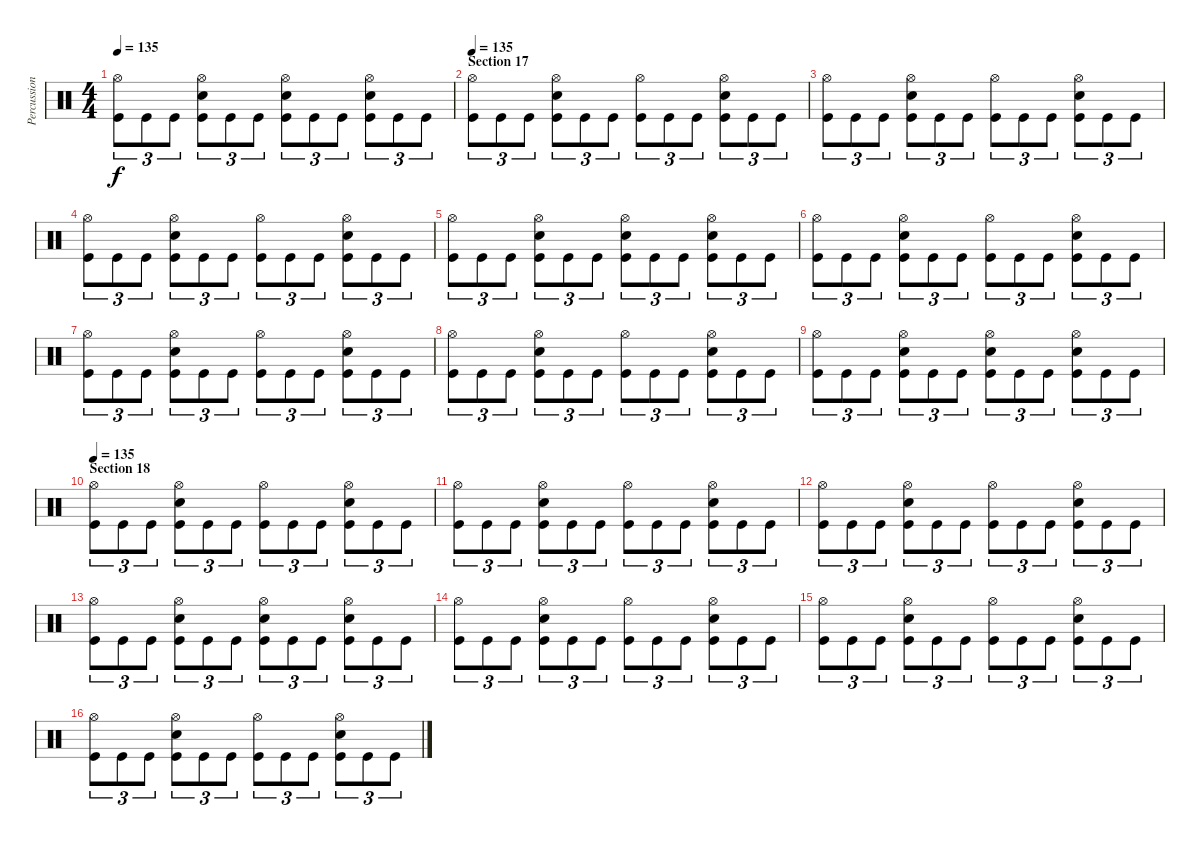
\track ("Percussions" "Percussion") {instrument percussion}
\staff {score}
\articulation defaults
\ts (4 4)
\tempo 135
\clef neutral
\ks c
("Hi-Hat (open)" "Kick (hit)").8{tu (3 2) dy f} "Kick (hit)".8{tu (3 2)} "Kick (hit)".8{tu (3 2)} ("Hi-Hat (open)" "Electric Snare (hit)" "Kick (hit)").8{tu (3 2)} "Kick (hit)".8{tu (3 2)} "Kick (hit)".8{tu (3 2)} ("Hi-Hat (open)" "Electric Snare (hit)" "Kick (hit)").8{tu (3 2)} "Kick (hit)".8{tu (3 2)} "Kick (hit)".8{tu (3 2)} ("Hi-Hat (open)" "Electric Snare (hit)" "Kick (hit)").8{tu (3 2)} "Kick (hit)".8{tu (3 2)} "Kick (hit)".8{tu (3 2)} |
\section ("" "Section 17")
\tempo 135
("Hi-Hat (open)" "Kick (hit)").8{tu (3 2)} "Kick (hit)".8{tu (3 2)} "Kick (hit)".8{tu (3 2)} ("Hi-Hat (open)" "Electric Snare (hit)" "Kick (hit)").8{tu (3 2)} "Kick (hit)".8{tu (3 2)} "Kick (hit)".8{tu (3 2)} ("Hi-Hat (open)" "Kick (hit)").8{tu (3 2)} "Kick (hit)".8{tu (3 2)} "Kick (hit)".8{tu (3 2)} ("Hi-Hat (open)" "Electric Snare (hit)" "Kick (hit)").8{tu (3 2)} "Kick (hit)".8{tu (3 2)} "Kick (hit)".8{tu (3 2)} |
("Hi-Hat (open)" "Kick (hit)").8{tu (3 2)} "Kick (hit)".8{tu (3 2)} "Kick (hit)".8{tu (3 2)} ("Hi-Hat (open)" "Electric Snare (hit)" "Kick (hit)").8{tu (3 2)} "Kick (hit)".8{tu (3 2)} "Kick (hit)".8{tu (3 2)} ("Hi-Hat (open)" "Kick (hit)").8{tu (3 2)} "Kick (hit)".8{tu (3 2)} "Kick (hit)".8{tu (3 2)} ("Hi-Hat (open)" "Electric Snare (hit)" "Kick (hit)").8{tu (3 2)} "Kick (hit)".8{tu (3 2)} "Kick (hit)".8{tu (3 2)} |
("Hi-Hat (open)" "Kick (hit)").8{tu (3 2)} "Kick (hit)".8{tu (3 2)} "Kick (hit)".8{tu (3 2)} ("Hi-Hat (open)" "Electric Snare (hit)" "Kick (hit)").8{tu (3 2)} "Kick (hit)".8{tu (3 2)} "Kick (hit)".8{tu (3 2)} ("Hi-Hat (open)" "Kick (hit)").8{tu (3 2)} "Kick (hit)".8{tu (3 2)} "Kick (hit)".8{tu (3 2)} ("Hi-Hat (open)" "Electric Snare (hit)" "Kick (hit)").8{tu (3 2)} "Kick (hit)".8{tu (3 2)} "Kick (hit)".8{tu (3 2)} |
("Hi-Hat (open)" "Kick (hit)").8{tu (3 2)} "Kick (hit)".8{tu (3 2)} "Kick (hit)".8{tu (3 2)} ("Hi-Hat (open)" "Electric Snare (hit)" "Kick (hit)").8{tu (3 2)} "Kick (hit)".8{tu (3 2)} "Kick (hit)".8{tu (3 2)} ("Hi-Hat (open)" "Electric Snare (hit)" "Kick (hit)").8{tu (3 2)} "Kick (hit)".8{tu (3 2)} "Kick (hit)".8{tu (3 2)} ("Hi-Hat (open)" "Electric Snare (hit)" "Kick (hit)").8{tu (3 2)} "Kick (hit)".8{tu (3 2)} "Kick (hit)".8{tu (3 2)} |
("Hi-Hat (open)" "Kick (hit)").8{tu (3 2)} "Kick (hit)".8{tu (3 2)} "Kick (hit)".8{tu (3 2)} ("Hi-Hat (open)" "Electric Snare (hit)" "Kick (hit)").8{tu (3 2)} "Kick (hit)".8{tu (3 2)} "Kick (hit)".8{tu (3 2)} ("Hi-Hat (open)" "Kick (hit)").8{tu (3 2)} "Kick (hit)".8{tu (3 2)} "Kick (hit)".8{tu (3 2)} ("Hi-Hat (open)" "Electric Snare (hit)" "Kick (hit)").8{tu (3 2)} "Kick (hit)".8{tu (3 2)} "Kick (hit)".8{tu (3 2)} |
("Hi-Hat (open)" "Kick (hit)").8{tu (3 2)} "Kick (hit)".8{tu (3 2)} "Kick (hit)".8{tu (3 2)} ("Hi-Hat (open)" "Electric Snare (hit)" "Kick (hit)").8{tu (3 2)} "Kick (hit)".8{tu (3 2)} "Kick (hit)".8{tu (3 2)} ("Hi-Hat (open)" "Kick (hit)").8{tu (3 2)} "Kick (hit)".8{tu (3 2)} "Kick (hit)".8{tu (3 2)} ("Hi-Hat (open)" "Electric Snare (hit)" "Kick (hit)").8{tu (3 2)} "Kick (hit)".8{tu (3 2)} "Kick (hit)".8{tu (3 2)} |
("Hi-Hat (open)" "Kick (hit)").8{tu (3 2)} "Kick (hit)".8{tu (3 2)} "Kick (hit)".8{tu (3 2)} ("Hi-Hat (open)" "Electric Snare (hit)" "Kick (hit)").8{tu (3 2)} "Kick (hit)".8{tu (3 2)} "Kick (hit)".8{tu (3 2)} ("Hi-Hat (open)" "Kick (hit)").8{tu (3 2)} "Kick (hit)".8{tu (3 2)} "Kick (hit)".8{tu (3 2)} ("Hi-Hat (open)" "Electric Snare (hit)" "Kick (hit)").8{tu (3 2)} "Kick (hit)".8{tu (3 2)} "Kick (hit)".8{tu (3 2)} |
("Hi-Hat (open)" "Kick (hit)").8{tu (3 2)} "Kick (hit)".8{tu (3 2)} "Kick (hit)".8{tu (3 2)} ("Hi-Hat (open)" "Electric Snare (hit)" "Kick (hit)").8{tu (3 2)} "Kick (hit)".8{tu (3 2)} "Kick (hit)".8{tu (3 2)} ("Hi-Hat (open)" "Electric Snare (hit)" "Kick (hit)").8{tu (3 2)} "Kick (hit)".8{tu (3 2)} "Kick (hit)".8{tu (3 2)} ("Hi-Hat (open)" "Electric Snare (hit)" "Kick (hit)").8{tu (3 2)} "Kick (hit)".8{tu (3 2)} "Kick (hit)".8{tu (3 2)} |
\section ("" "Section 18")
\tempo 135
("Hi-Hat (open)" "Kick (hit)").8{tu (3 2)} "Kick (hit)".8{tu (3 2)} "Kick (hit)".8{tu (3 2)} ("Hi-Hat (open)" "Electric Snare (hit)" "Kick (hit)").8{tu (3 2)} "Kick (hit)".8{tu (3 2)} "Kick (hit)".8{tu (3 2)} ("Hi-Hat (open)" "Kick (hit)").8{tu (3 2)} "Kick (hit)".8{tu (3 2)} "Kick (hit)".8{tu (3 2)} ("Hi-Hat (open)" "Electric Snare (hit)" "Kick (hit)").8{tu (3 2)} "Kick (hit)".8{tu (3 2)} "Kick (hit)".8{tu (3 2)} |
("Hi-Hat (open)" "Kick (hit)").8{tu (3 2)} "Kick (hit)".8{tu (3 2)} "Kick (hit)".8{tu (3 2)} ("Hi-Hat (open)" "Electric Snare (hit)" "Kick (hit)").8{tu (3 2)} "Kick (hit)".8{tu (3 2)} "Kick (hit)".8{tu (3 2)} ("Hi-Hat (open)" "Kick (hit)").8{tu (3 2)} "Kick (hit)".8{tu (3 2)} "Kick (hit)".8{tu (3 2)} ("Hi-Hat (open)" "Electric Snare (hit)" "Kick (hit)").8{tu (3 2)} "Kick (hit)".8{tu (3 2)} "Kick (hit)".8{tu (3 2)} |
("Hi-Hat (open)" "Kick (hit)").8{tu (3 2)} "Kick (hit)".8{tu (3 2)} "Kick (hit)".8{tu (3 2)} ("Hi-Hat (open)" "Electric Snare (hit)" "Kick (hit)").8{tu (3 2)} "Kick (hit)".8{tu (3 2)} "Kick (hit)".8{tu (3 2)} ("Hi-Hat (open)" "Kick (hit)").8{tu (3 2)} "Kick (hit)".8{tu (3 2)} "Kick (hit)".8{tu (3 2)} ("Hi-Hat (open)" "Electric Snare (hit)" "Kick (hit)").8{tu (3 2)} "Kick (hit)".8{tu (3 2)} "Kick (hit)".8{tu (3 2)} |
("Hi-Hat (open)" "Kick (hit)").8{tu (3 2)} "Kick (hit)".8{tu (3 2)} "Kick (hit)".8{tu (3 2)} ("Hi-Hat (open)" "Electric Snare (hit)" "Kick (hit)").8{tu (3 2)} "Kick (hit)".8{tu (3 2)} "Kick (hit)".8{tu (3 2)} ("Hi-Hat (open)" "Electric Snare (hit)" "Kick (hit)").8{tu (3 2)} "Kick (hit)".8{tu (3 2)} "Kick (hit)".8{tu (3 2)} ("Hi-Hat (open)" "Electric Snare (hit)" "Kick (hit)").8{tu (3 2)} "Kick (hit)".8{tu (3 2)} "Kick (hit)".8{tu (3 2)} |
("Hi-Hat (open)" "Kick (hit)").8{tu (3 2)} "Kick (hit)".8{tu (3 2)} "Kick (hit)".8{tu (3 2)} ("Hi-Hat (open)" "Electric Snare (hit)" "Kick (hit)").8{tu (3 2)} "Kick (hit)".8{tu (3 2)} "Kick (hit)".8{tu (3 2)} ("Hi-Hat (open)" "Kick (hit)").8{tu (3 2)} "Kick (hit)".8{tu (3 2)} "Kick (hit)".8{tu (3 2)} ("Hi-Hat (open)" "Electric Snare (hit)" "Kick (hit)").8{tu (3 2)} "Kick (hit)".8{tu (3 2)} "Kick (hit)".8{tu (3 2)} |
("Hi-Hat (open)" "Kick (hit)").8{tu (3 2)} "Kick (hit)".8{tu (3 2)} "Kick (hit)".8{tu (3 2)} ("Hi-Hat (open)" "Electric Snare (hit)" "Kick (hit)").8{tu (3 2)} "Kick (hit)".8{tu (3 2)} "Kick (hit)".8{tu (3 2)} ("Hi-Hat (open)" "Kick (hit)").8{tu (3 2)} "Kick (hit)".8{tu (3 2)} "Kick (hit)".8{tu (3 2)} ("Hi-Hat (open)" "Electric Snare (hit)" "Kick (hit)").8{tu (3 2)} "Kick (hit)".8{tu (3 2)} "Kick (hit)".8{tu (3 2)} |
("Hi-Hat (open)" "Kick (hit)").8{tu (3 2)} "Kick (hit)".8{tu (3 2)} "Kick (hit)".8{tu (3 2)} ("Hi-Hat (open)" "Electric Snare (hit)" "Kick (hit)").8{tu (3 2)} "Kick (hit)".8{tu (3 2)} "Kick (hit)".8{tu (3 2)} ("Hi-Hat (open)" "Kick (hit)").8{tu (3 2)} "Kick (hit)".8{tu (3 2)} "Kick (hit)".8{tu (3 2)} ("Hi-Hat (open)" "Electric Snare (hit)" "Kick (hit)").8{tu (3 2)} "Kick (hit)".8{tu (3 2)} "Kick (hit)".8{tu (3 2)}
